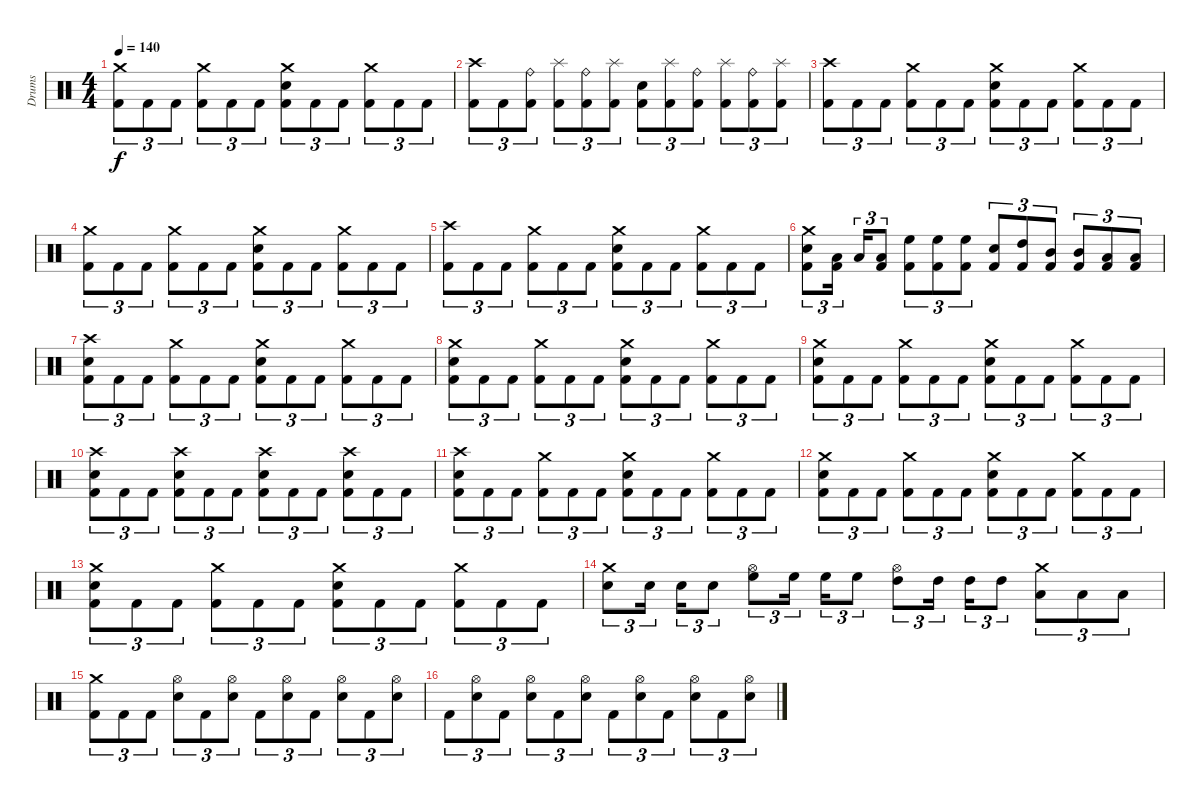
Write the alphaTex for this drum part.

\track ("Drums" "Drums") {instrument percussion}
\staff {score}
\articulation defaults
\ts (4 4)
\tempo 140
\clef neutral
\ks c
("Crash medium (hit)" "Kick (hit) 2").8{tu (3 2) dy f} "Kick (hit) 2".8{tu (3 2)} "Kick (hit) 2".8{tu (3 2)} ("Crash medium (hit)" "Kick (hit) 2").8{tu (3 2)} "Kick (hit) 2".8{tu (3 2)} "Kick (hit) 2".8{tu (3 2)} ("Crash medium (hit)" "Snare (hit) 2" "Kick (hit) 2").8{tu (3 2)} "Kick (hit) 2".8{tu (3 2)} "Kick (hit) 2".8{tu (3 2)} ("Crash medium (hit)" "Kick (hit) 2").8{tu (3 2)} "Kick (hit) 2".8{tu (3 2)} "Kick (hit) 2".8{tu (3 2)} |
("Crash high (hit)" "Kick (hit) 2").8{tu (3 2)} "Kick (hit) 2".8{tu (3 2)} ("Ride (bell)" "Kick (hit) 2").8{tu (3 2)} ("Splash (hit)" "Kick (hit) 2").8{tu (3 2)} ("Ride (bell)" "Kick (hit) 2").8{tu (3 2)} ("Splash (hit)" "Kick (hit) 2").8{tu (3 2)} ("Snare (hit) 2" "Kick (hit) 2").8{tu (3 2)} ("Splash (hit)" "Kick (hit) 2").8{tu (3 2)} ("Ride (bell)" "Kick (hit) 2").8{tu (3 2)} ("Splash (hit)" "Kick (hit) 2").8{tu (3 2)} ("Ride (bell)" "Kick (hit) 2").8{tu (3 2)} ("Splash (hit)" "Kick (hit) 2").8{tu (3 2)} |
("Crash high (hit)" "Kick (hit) 2").8{tu (3 2)} "Kick (hit) 2".8{tu (3 2)} "Kick (hit) 2".8{tu (3 2)} ("Crash medium (hit)" "Kick (hit) 2").8{tu (3 2)} "Kick (hit) 2".8{tu (3 2)} "Kick (hit) 2".8{tu (3 2)} ("Crash medium (hit)" "Snare (hit) 2" "Kick (hit) 2").8{tu (3 2)} "Kick (hit) 2".8{tu (3 2)} "Kick (hit) 2".8{tu (3 2)} ("Crash medium (hit)" "Kick (hit) 2").8{tu (3 2)} "Kick (hit) 2".8{tu (3 2)} "Kick (hit) 2".8{tu (3 2)} |
("Crash medium (hit)" "Kick (hit) 2").8{tu (3 2)} "Kick (hit) 2".8{tu (3 2)} "Kick (hit) 2".8{tu (3 2)} ("Crash medium (hit)" "Kick (hit) 2").8{tu (3 2)} "Kick (hit) 2".8{tu (3 2)} "Kick (hit) 2".8{tu (3 2)} ("Crash medium (hit)" "Snare (hit) 2" "Kick (hit) 2").8{tu (3 2)} "Kick (hit) 2".8{tu (3 2)} "Kick (hit) 2".8{tu (3 2)} ("Crash medium (hit)" "Kick (hit) 2").8{tu (3 2)} "Kick (hit) 2".8{tu (3 2)} "Kick (hit) 2".8{tu (3 2)} |
("Crash high (hit)" "Kick (hit) 2").8{tu (3 2)} "Kick (hit) 2".8{tu (3 2)} "Kick (hit) 2".8{tu (3 2)} ("Crash medium (hit)" "Kick (hit) 2").8{tu (3 2)} "Kick (hit) 2".8{tu (3 2)} "Kick (hit) 2".8{tu (3 2)} ("Crash medium (hit)" "Snare (hit) 2" "Kick (hit) 2").8{tu (3 2)} "Kick (hit) 2".8{tu (3 2)} "Kick (hit) 2".8{tu (3 2)} ("Crash medium (hit)" "Kick (hit) 2").8{tu (3 2)} "Kick (hit) 2".8{tu (3 2)} "Kick (hit) 2".8{tu (3 2)} |
("Crash medium (hit)" "Snare (hit) 2" "Kick (hit) 2").8{tu (3 2)} ("Low Tom (hit)" "Kick (hit) 2").16{tu (3 2)} "Low Tom (hit)".16{tu (3 2)} ("Low Tom (hit)" "Kick (hit) 2").8{tu (3 2)} ("High Floor Tom (hit)" "Kick (hit) 2").8{tu (3 2)} ("High Floor Tom (hit)" "Kick (hit) 2").8{tu (3 2)} ("High Floor Tom (hit)" "Kick (hit) 2").8{tu (3 2)} ("Snare (hit) 2" "Kick (hit) 2").8{tu (3 2)} ("High Tom (hit)" "Kick (hit) 2").8{tu (3 2)} ("Mid Tom (hit)" "Kick (hit) 2").8{tu (3 2)} ("Mid Tom (hit)" "Kick (hit) 2").8{tu (3 2)} ("Low Tom (hit)" "Kick (hit) 2").8{tu (3 2)} ("Low Tom (hit)" "Kick (hit) 2").8{tu (3 2)} |
("Crash high (hit)" "Snare (hit) 2" "Kick (hit) 2").8{tu (3 2)} "Kick (hit) 2".8{tu (3 2)} "Kick (hit) 2".8{tu (3 2)} ("Crash medium (hit)" "Kick (hit) 2").8{tu (3 2)} "Kick (hit) 2".8{tu (3 2)} "Kick (hit) 2".8{tu (3 2)} ("Crash medium (hit)" "Snare (hit) 2" "Kick (hit) 2").8{tu (3 2)} "Kick (hit) 2".8{tu (3 2)} "Kick (hit) 2".8{tu (3 2)} ("Crash medium (hit)" "Kick (hit) 2").8{tu (3 2)} "Kick (hit) 2".8{tu (3 2)} "Kick (hit) 2".8{tu (3 2)} |
("Crash medium (hit)" "Snare (hit) 2" "Kick (hit) 2").8{tu (3 2)} "Kick (hit) 2".8{tu (3 2)} "Kick (hit) 2".8{tu (3 2)} ("Crash medium (hit)" "Kick (hit) 2").8{tu (3 2)} "Kick (hit) 2".8{tu (3 2)} "Kick (hit) 2".8{tu (3 2)} ("Crash medium (hit)" "Snare (hit) 2" "Kick (hit) 2").8{tu (3 2)} "Kick (hit) 2".8{tu (3 2)} "Kick (hit) 2".8{tu (3 2)} ("Crash medium (hit)" "Kick (hit) 2").8{tu (3 2)} "Kick (hit) 2".8{tu (3 2)} "Kick (hit) 2".8{tu (3 2)} |
("Crash medium (hit)" "Snare (hit) 2" "Kick (hit) 2").8{tu (3 2)} "Kick (hit) 2".8{tu (3 2)} "Kick (hit) 2".8{tu (3 2)} ("Crash medium (hit)" "Kick (hit) 2").8{tu (3 2)} "Kick (hit) 2".8{tu (3 2)} "Kick (hit) 2".8{tu (3 2)} ("Crash medium (hit)" "Snare (hit) 2" "Kick (hit) 2").8{tu (3 2)} "Kick (hit) 2".8{tu (3 2)} "Kick (hit) 2".8{tu (3 2)} ("Crash medium (hit)" "Kick (hit) 2").8{tu (3 2)} "Kick (hit) 2".8{tu (3 2)} "Kick (hit) 2".8{tu (3 2)} |
("Crash high (hit)" "Snare (hit) 2" "Kick (hit) 2").8{tu (3 2)} "Kick (hit) 2".8{tu (3 2)} "Kick (hit) 2".8{tu (3 2)} ("Crash high (hit)" "Snare (hit) 2" "Kick (hit) 2").8{tu (3 2)} "Kick (hit) 2".8{tu (3 2)} "Kick (hit) 2".8{tu (3 2)} ("Crash high (hit)" "Snare (hit) 2" "Kick (hit) 2").8{tu (3 2)} "Kick (hit) 2".8{tu (3 2)} "Kick (hit) 2".8{tu (3 2)} ("Crash high (hit)" "Snare (hit) 2" "Kick (hit) 2").8{tu (3 2)} "Kick (hit) 2".8{tu (3 2)} "Kick (hit) 2".8{tu (3 2)} |
("Crash high (hit)" "Snare (hit) 2" "Kick (hit) 2").8{tu (3 2)} "Kick (hit) 2".8{tu (3 2)} "Kick (hit) 2".8{tu (3 2)} ("Crash medium (hit)" "Kick (hit) 2").8{tu (3 2)} "Kick (hit) 2".8{tu (3 2)} "Kick (hit) 2".8{tu (3 2)} ("Crash medium (hit)" "Snare (hit) 2" "Kick (hit) 2").8{tu (3 2)} "Kick (hit) 2".8{tu (3 2)} "Kick (hit) 2".8{tu (3 2)} ("Crash medium (hit)" "Kick (hit) 2").8{tu (3 2)} "Kick (hit) 2".8{tu (3 2)} "Kick (hit) 2".8{tu (3 2)} |
("Crash medium (hit)" "Snare (hit) 2" "Kick (hit) 2").8{tu (3 2)} "Kick (hit) 2".8{tu (3 2)} "Kick (hit) 2".8{tu (3 2)} ("Crash medium (hit)" "Kick (hit) 2").8{tu (3 2)} "Kick (hit) 2".8{tu (3 2)} "Kick (hit) 2".8{tu (3 2)} ("Crash medium (hit)" "Snare (hit) 2" "Kick (hit) 2").8{tu (3 2)} "Kick (hit) 2".8{tu (3 2)} "Kick (hit) 2".8{tu (3 2)} ("Crash medium (hit)" "Kick (hit) 2").8{tu (3 2)} "Kick (hit) 2".8{tu (3 2)} "Kick (hit) 2".8{tu (3 2)} |
("Crash medium (hit)" "Snare (hit) 2" "Kick (hit) 2").8{tu (3 2)} "Kick (hit) 2".8{tu (3 2)} "Kick (hit) 2".8{tu (3 2)} ("Crash medium (hit)" "Kick (hit) 2").8{tu (3 2)} "Kick (hit) 2".8{tu (3 2)} "Kick (hit) 2".8{tu (3 2)} ("Crash medium (hit)" "Snare (hit) 2" "Kick (hit) 2").8{tu (3 2)} "Kick (hit) 2".8{tu (3 2)} "Kick (hit) 2".8{tu (3 2)} ("Crash medium (hit)" "Kick (hit) 2").8{tu (3 2)} "Kick (hit) 2".8{tu (3 2)} "Kick (hit) 2".8{tu (3 2)} |
("Crash medium (hit)" "Snare (hit) 2").8{tu (3 2)} "Snare (hit) 2".16{tu (3 2)} "Snare (hit) 2".16{tu (3 2)} "Snare (hit) 2".8{tu (3 2)} ("Hi-Hat (open)" "High Floor Tom (hit)").8{tu (3 2)} "High Floor Tom (hit)".16{tu (3 2)} "High Floor Tom (hit)".16{tu (3 2)} "High Floor Tom (hit)".8{tu (3 2)} ("Hi-Hat (open)" "High Tom (hit)").8{tu (3 2)} "High Tom (hit)".16{tu (3 2)} "High Tom (hit)".16{tu (3 2)} "High Tom (hit)".8{tu (3 2)} ("Crash medium (hit)" "Low Tom (hit)").8{tu (3 2)} "Low Tom (hit)".8{tu (3 2)} "Low Tom (hit)".8{tu (3 2)} |
("Crash medium (hit)" "Kick (hit) 2").8{tu (3 2)} "Kick (hit) 2".8{tu (3 2)} "Kick (hit) 2".8{tu (3 2)} ("Hi-Hat (open)" "Snare (hit) 2").8{tu (3 2)} "Kick (hit) 2".8{tu (3 2)} ("Hi-Hat (open)" "Snare (hit) 2").8{tu (3 2)} "Kick (hit) 2".8{tu (3 2)} ("Hi-Hat (open)" "Snare (hit) 2").8{tu (3 2)} "Kick (hit) 2".8{tu (3 2)} ("Hi-Hat (open)" "Snare (hit) 2").8{tu (3 2)} "Kick (hit) 2".8{tu (3 2)} ("Hi-Hat (open)" "Snare (hit) 2").8{tu (3 2)} |
"Kick (hit) 2".8{tu (3 2)} ("Hi-Hat (open)" "Snare (hit) 2").8{tu (3 2)} "Kick (hit) 2".8{tu (3 2)} ("Hi-Hat (open)" "Snare (hit) 2").8{tu (3 2)} "Kick (hit) 2".8{tu (3 2)} ("Hi-Hat (open)" "Snare (hit) 2").8{tu (3 2)} "Kick (hit) 2".8{tu (3 2)} ("Hi-Hat (open)" "Snare (hit) 2").8{tu (3 2)} "Kick (hit) 2".8{tu (3 2)} ("Hi-Hat (open)" "Snare (hit) 2").8{tu (3 2)} "Kick (hit) 2".8{tu (3 2)} ("Hi-Hat (open)" "Snare (hit) 2").8{tu (3 2)}
